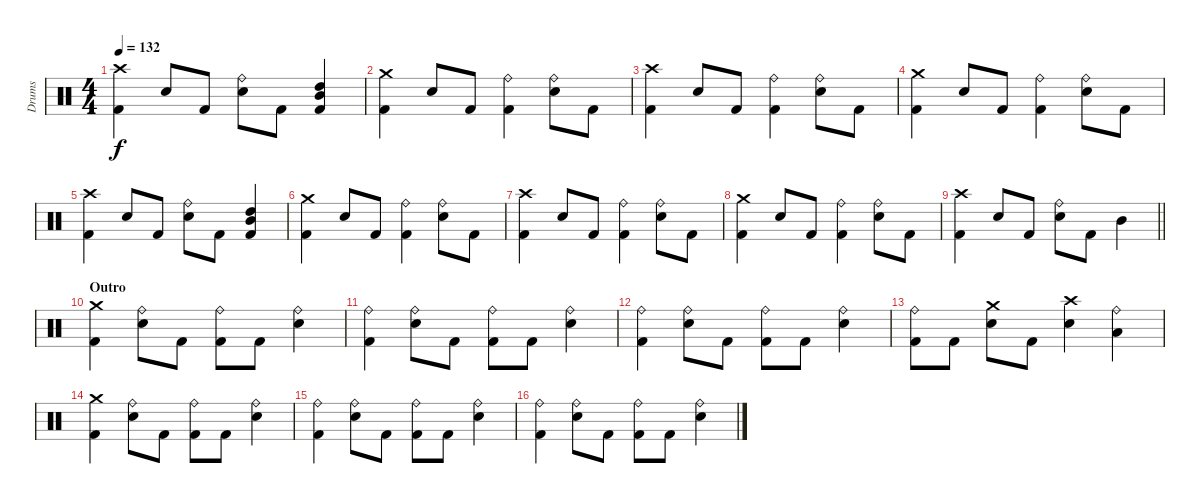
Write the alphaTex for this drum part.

\track ("Drums" "Drums") {instrument percussion}
\staff {score}
\articulation defaults
\ts (4 4)
\tempo 132
\clef neutral
\ks c
("Kick (hit) 2" "Crash high (hit)").4{dy f} "Electric Snare (hit)".8 "Kick (hit) 2".8 ("Electric Snare (hit)" "Ride (bell)").8 "Kick (hit) 2".8 ("Kick (hit) 2" "Mid Tom (hit)" "High Tom (hit)").4 |
("Kick (hit) 2" "Crash medium (hit)").4 "Electric Snare (hit)".8 "Kick (hit) 2".8 ("Kick (hit) 2" "Ride (bell)").4 ("Electric Snare (hit)" "Ride (bell)").8 "Kick (hit) 2".8 |
("Kick (hit) 2" "Crash high (hit)").4 "Electric Snare (hit)".8 "Kick (hit) 2".8 ("Kick (hit) 2" "Ride (bell)").4 ("Electric Snare (hit)" "Ride (bell)").8 "Kick (hit) 2".8 |
("Kick (hit) 2" "Crash medium (hit)").4 "Electric Snare (hit)".8 "Kick (hit) 2".8 ("Kick (hit) 2" "Ride (bell)").4 ("Electric Snare (hit)" "Ride (bell)").8 "Kick (hit) 2".8 |
("Kick (hit) 2" "Crash high (hit)").4 "Electric Snare (hit)".8 "Kick (hit) 2".8 ("Electric Snare (hit)" "Ride (bell)").8 "Kick (hit) 2".8 ("Kick (hit) 2" "Mid Tom (hit)" "High Tom (hit)").4 |
("Kick (hit) 2" "Crash medium (hit)").4 "Electric Snare (hit)".8 "Kick (hit) 2".8 ("Kick (hit) 2" "Ride (bell)").4 ("Electric Snare (hit)" "Ride (bell)").8 "Kick (hit) 2".8 |
("Kick (hit) 2" "Crash high (hit)").4 "Electric Snare (hit)".8 "Kick (hit) 2".8 ("Kick (hit) 2" "Ride (bell)").4 ("Electric Snare (hit)" "Ride (bell)").8 "Kick (hit) 2".8 |
("Kick (hit) 2" "Crash medium (hit)").4 "Electric Snare (hit)".8 "Kick (hit) 2".8 ("Kick (hit) 2" "Ride (bell)").4 ("Electric Snare (hit)" "Ride (bell)").8 "Kick (hit) 2".8 |
\barLineRight lightlight
("Kick (hit) 2" "Crash high (hit)").4 "Electric Snare (hit)".8 "Kick (hit) 2".8 ("Electric Snare (hit)" "Ride (bell)").8 "Kick (hit) 2".8 "Mid Tom (hit)".4 |
\section ("" "Outro")
("Kick (hit) 2" "Crash medium (hit)").4 ("Electric Snare (hit)" "Ride (bell)").8 "Kick (hit) 2".8 ("Kick (hit) 2" "Ride (bell)").8 "Kick (hit) 2".8 ("Electric Snare (hit)" "Ride (bell)").4 |
("Kick (hit) 2" "Ride (bell)").4 ("Electric Snare (hit)" "Ride (bell)").8 "Kick (hit) 2".8 ("Kick (hit) 2" "Ride (bell)").8 "Kick (hit) 2".8 ("Electric Snare (hit)" "Ride (bell)").4 |
("Kick (hit) 2" "Ride (bell)").4 ("Electric Snare (hit)" "Ride (bell)").8 "Kick (hit) 2".8 ("Kick (hit) 2" "Ride (bell)").8 "Kick (hit) 2".8 ("Electric Snare (hit)" "Ride (bell)").4 |
("Kick (hit) 2" "Ride (bell)").8 "Kick (hit) 2".8 ("Electric Snare (hit)" "Crash medium (hit)").8 "Kick (hit) 2".8 ("Electric Snare (hit)" "Crash high (hit)").4 ("Low Tom (hit)" "Ride (bell)").4 |
("Kick (hit) 2" "Crash medium (hit)").4 ("Electric Snare (hit)" "Ride (bell)").8 "Kick (hit) 2".8 ("Kick (hit) 2" "Ride (bell)").8 "Kick (hit) 2".8 ("Electric Snare (hit)" "Ride (bell)").4 |
("Kick (hit) 2" "Ride (bell)").4 ("Electric Snare (hit)" "Ride (bell)").8 "Kick (hit) 2".8 ("Kick (hit) 2" "Ride (bell)").8 "Kick (hit) 2".8 ("Electric Snare (hit)" "Ride (bell)").4 |
("Kick (hit) 2" "Ride (bell)").4 ("Electric Snare (hit)" "Ride (bell)").8 "Kick (hit) 2".8 ("Kick (hit) 2" "Ride (bell)").8 "Kick (hit) 2".8 ("Electric Snare (hit)" "Ride (bell)").4
